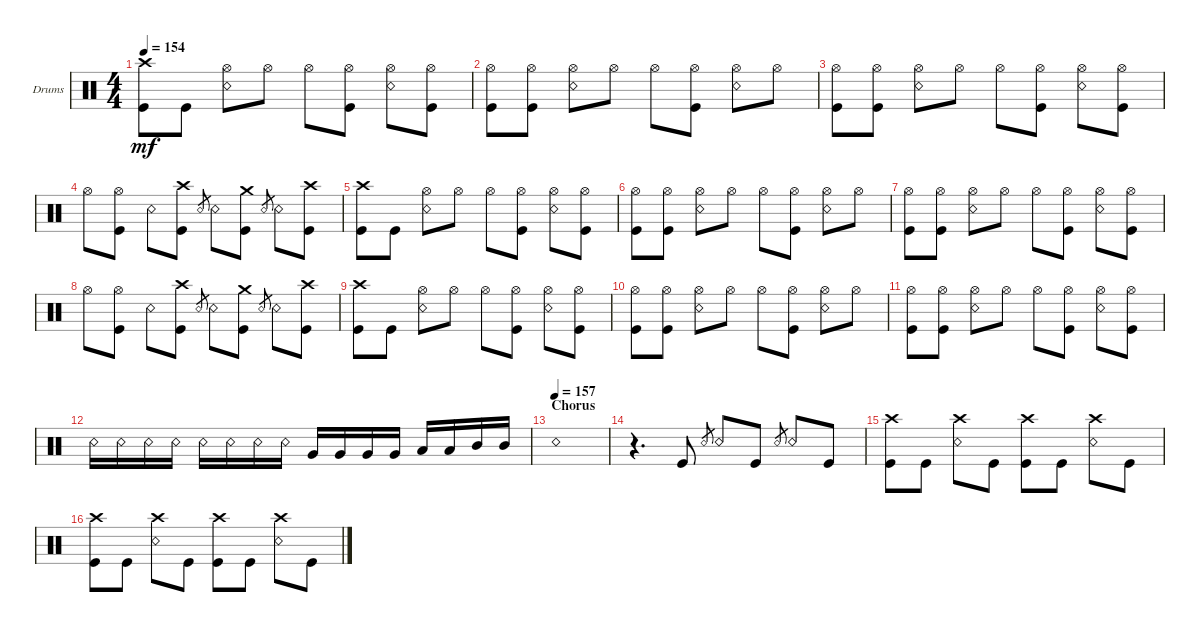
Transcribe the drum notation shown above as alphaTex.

\defaultSystemsLayout 4
\bracketExtendMode groupsimilarinstruments
\firstSystemTrackNameOrientation horizontal
\otherSystemsTrackNameOrientation horizontal
\track ("Drumkit" "Drums") {instrument percussion}
\staff {score}
\articulation defaults
\ts (4 4)
\tempo 154
\clef neutral
\ks c
("Kick (hit)" "Crash high (hit)").8{dy mf} "Kick (hit)".8 ("Hi-Hat (open)" "Snare (rim shot)").8 "Hi-Hat (open)".8 "Hi-Hat (open)".8 ("Hi-Hat (open)" "Kick (hit)").8 ("Hi-Hat (open)" "Snare (rim shot)").8 ("Hi-Hat (open)" "Kick (hit)").8 |
("Hi-Hat (open)" "Kick (hit)").8 ("Hi-Hat (open)" "Kick (hit)").8 ("Hi-Hat (open)" "Snare (rim shot)").8 "Hi-Hat (open)".8 "Hi-Hat (open)".8 ("Hi-Hat (open)" "Kick (hit)").8 ("Hi-Hat (open)" "Snare (rim shot)").8 "Hi-Hat (open)".8 |
("Hi-Hat (open)" "Kick (hit)").8 ("Hi-Hat (open)" "Kick (hit)").8 ("Hi-Hat (open)" "Snare (rim shot)").8 "Hi-Hat (open)".8 "Hi-Hat (open)".8 ("Hi-Hat (open)" "Kick (hit)").8 ("Hi-Hat (open)" "Snare (rim shot)").8 ("Hi-Hat (open)" "Kick (hit)").8 |
"Hi-Hat (open)".8 ("Kick (hit)" "Hi-Hat (open)").8 "Snare (rim shot)".8 ("Kick (hit)" "Crash high (hit)").8 "Snare (rim shot)".8{gr} "Snare (rim shot)".8 ("Kick (hit)" "Crash medium (hit)").8 "Snare (rim shot)".8{gr} "Snare (rim shot)".8 ("Kick (hit)" "Crash high (hit)").8 |
("Kick (hit)" "Crash high (hit)").8 "Kick (hit)".8 ("Hi-Hat (open)" "Snare (rim shot)").8 "Hi-Hat (open)".8 "Hi-Hat (open)".8 ("Hi-Hat (open)" "Kick (hit)").8 ("Hi-Hat (open)" "Snare (rim shot)").8 ("Hi-Hat (open)" "Kick (hit)").8 |
("Hi-Hat (open)" "Kick (hit)").8 ("Hi-Hat (open)" "Kick (hit)").8 ("Hi-Hat (open)" "Snare (rim shot)").8 "Hi-Hat (open)".8 "Hi-Hat (open)".8 ("Hi-Hat (open)" "Kick (hit)").8 ("Hi-Hat (open)" "Snare (rim shot)").8 "Hi-Hat (open)".8 |
("Hi-Hat (open)" "Kick (hit)").8 ("Hi-Hat (open)" "Kick (hit)").8 ("Hi-Hat (open)" "Snare (rim shot)").8 "Hi-Hat (open)".8 "Hi-Hat (open)".8 ("Hi-Hat (open)" "Kick (hit)").8 ("Hi-Hat (open)" "Snare (rim shot)").8 ("Hi-Hat (open)" "Kick (hit)").8 |
"Hi-Hat (open)".8 ("Kick (hit)" "Hi-Hat (open)").8 "Snare (rim shot)".8 ("Kick (hit)" "Crash high (hit)").8 "Snare (rim shot)".8{gr} "Snare (rim shot)".8 ("Kick (hit)" "Crash medium (hit)").8 "Snare (rim shot)".8{gr} "Snare (rim shot)".8 ("Kick (hit)" "Crash high (hit)").8 |
("Kick (hit)" "Crash high (hit)").8 "Kick (hit)".8 ("Hi-Hat (open)" "Snare (rim shot)").8 "Hi-Hat (open)".8 "Hi-Hat (open)".8 ("Hi-Hat (open)" "Kick (hit)").8 ("Hi-Hat (open)" "Snare (rim shot)").8 ("Hi-Hat (open)" "Kick (hit)").8 |
("Hi-Hat (open)" "Kick (hit)").8 ("Hi-Hat (open)" "Kick (hit)").8 ("Hi-Hat (open)" "Snare (rim shot)").8 "Hi-Hat (open)".8 "Hi-Hat (open)".8 ("Hi-Hat (open)" "Kick (hit)").8 ("Hi-Hat (open)" "Snare (rim shot)").8 "Hi-Hat (open)".8 |
("Hi-Hat (open)" "Kick (hit)").8 ("Hi-Hat (open)" "Kick (hit)").8 ("Hi-Hat (open)" "Snare (rim shot)").8 "Hi-Hat (open)".8 "Hi-Hat (open)".8 ("Hi-Hat (open)" "Kick (hit)").8 ("Hi-Hat (open)" "Snare (rim shot)").8 ("Hi-Hat (open)" "Kick (hit)").8 |
"Snare (rim shot)".16 "Snare (rim shot)".16 "Snare (rim shot)".16 "Snare (rim shot)".16 "Snare (rim shot)".16 "Snare (rim shot)".16 "Snare (rim shot)".16 "Snare (rim shot)".16 "Very Low Tom (hit)".16 "Very Low Tom (hit)".16 "Very Low Tom (hit)".16 "Very Low Tom (hit)".16 "Low Tom (hit)".16 "Low Tom (hit)".16 "Mid Tom (hit)".16 "Mid Tom (hit)".16 |
\section ("" "Chorus")
\tempo (157)
"Snare (rim shot)".1 |
r.4{d} "Kick (hit)".8 "Snare (rim shot)".8{gr} "Snare (rim shot)".8 "Kick (hit)".8 "Snare (rim shot)".8{gr} "Snare (rim shot)".8 "Kick (hit)".8 |
("Kick (hit)" "Crash high (hit)").8 "Kick (hit)".8 ("Snare (rim shot)" "Crash high (hit)").8 "Kick (hit)".8 ("Kick (hit)" "Crash high (hit)").8 "Kick (hit)".8 ("Snare (rim shot)" "Crash high (hit)").8 "Kick (hit)".8 |
("Kick (hit)" "Crash high (hit)").8 "Kick (hit)".8 ("Snare (rim shot)" "Crash high (hit)").8 "Kick (hit)".8 ("Kick (hit)" "Crash high (hit)").8 "Kick (hit)".8 ("Snare (rim shot)" "Crash high (hit)").8 "Kick (hit)".8
